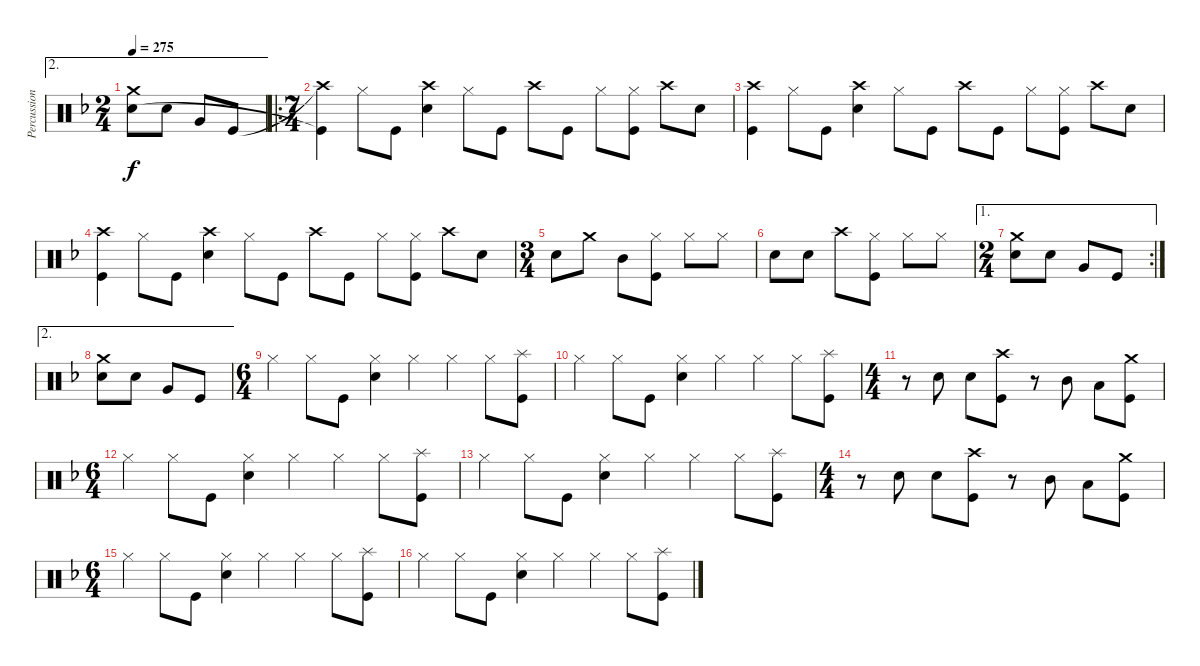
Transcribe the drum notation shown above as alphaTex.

\track ("Percussion" "Percussion") {instrument percussion}
\staff {score}
\articulation defaults
\ae 2
\ts (2 4)
\tempo 275
\clef neutral
\ks dminor
("Crash medium (hit)" "Snare (hit) 2").8{dy f} "Snare (hit) 2".8 "Very Low Tom (hit)".8 "Kick (hit)".8 |
\ro
\ts (7 4)
("Crash high (hit)"{t} "Kick (hit)"{t}).4 "Hi-Hat (closed)".8 "Kick (hit)".8 ("Crash high (hit)" "Snare (hit) 2").4 "Hi-Hat (closed)".8 "Kick (hit)".8 "Crash high (hit)".8 "Kick (hit)".8 "Hi-Hat (closed)".8 ("Hi-Hat (closed)" "Kick (hit)").8 "Crash high (hit)".8 "Snare (hit) 2".8 |
("Crash high (hit)" "Kick (hit)").4 "Hi-Hat (closed)".8 "Kick (hit)".8 ("Crash high (hit)" "Snare (hit) 2").4 "Hi-Hat (closed)".8 "Kick (hit)".8 "Crash high (hit)".8 "Kick (hit)".8 "Hi-Hat (closed)".8 ("Hi-Hat (closed)" "Kick (hit)").8 "Crash high (hit)".8 "Snare (hit) 2".8 |
("Crash high (hit)" "Kick (hit)").4 "Hi-Hat (closed)".8 "Kick (hit)".8 ("Crash high (hit)" "Snare (hit) 2").4 "Hi-Hat (closed)".8 "Kick (hit)".8 "Crash high (hit)".8 "Kick (hit)".8 "Hi-Hat (closed)".8 ("Hi-Hat (closed)" "Kick (hit)").8 "Crash high (hit)".8 "Snare (hit) 2".8 |
\ts (3 4)
"Snare (hit) 2".8 "Crash medium (hit)".8 "Mid Tom (hit)".8 ("Hi-Hat (closed)" "Kick (hit)").8 "Hi-Hat (closed)".8 "Hi-Hat (closed)".8 |
"Snare (hit) 2".8 "Snare (hit) 2".8 "Crash high (hit)".8 ("Hi-Hat (closed)" "Kick (hit)").8 "Hi-Hat (closed)".8 "Hi-Hat (closed)".8 |
\ae 1
\rc 2
\ts (2 4)
("Crash medium (hit)" "Snare (hit) 2").8 "Snare (hit) 2".8 "Very Low Tom (hit)".8 "Kick (hit)".8 |
\ae 2
("Crash medium (hit)" "Snare (hit) 2").8 "Snare (hit) 2".8 "Very Low Tom (hit)".8 "Kick (hit)".8 |
\ts (6 4)
"Hi-Hat (closed)".4 "Hi-Hat (closed)".8 "Kick (hit)".8 ("Hi-Hat (closed)" "Snare (hit) 2").4 "Hi-Hat (closed)".4 "Hi-Hat (closed)".4 "Hi-Hat (closed)".8 ("Splash (hit)" "Kick (hit)").8 |
"Hi-Hat (closed)".4 "Hi-Hat (closed)".8 "Kick (hit)".8 ("Hi-Hat (closed)" "Snare (hit) 2").4 "Hi-Hat (closed)".4 "Hi-Hat (closed)".4 "Hi-Hat (closed)".8 ("Splash (hit)" "Kick (hit)").8 |
\ts (4 4)
r.8 "Snare (hit) 2".8 "Snare (hit) 2".8 ("Crash high (hit)" "Kick (hit)").8 r.8 "Mid Tom (hit)".8 "Low Tom (hit)".8 ("Crash medium (hit)" "Kick (hit)").8 |
\ts (6 4)
"Hi-Hat (closed)".4 "Hi-Hat (closed)".8 "Kick (hit)".8 ("Hi-Hat (closed)" "Snare (hit) 2").4 "Hi-Hat (closed)".4 "Hi-Hat (closed)".4 "Hi-Hat (closed)".8 ("Splash (hit)" "Kick (hit)").8 |
"Hi-Hat (closed)".4 "Hi-Hat (closed)".8 "Kick (hit)".8 ("Hi-Hat (closed)" "Snare (hit) 2").4 "Hi-Hat (closed)".4 "Hi-Hat (closed)".4 "Hi-Hat (closed)".8 ("Splash (hit)" "Kick (hit)").8 |
\ts (4 4)
r.8 "Snare (hit) 2".8 "Snare (hit) 2".8 ("Crash high (hit)" "Kick (hit)").8 r.8 "Mid Tom (hit)".8 "Low Tom (hit)".8 ("Crash medium (hit)" "Kick (hit)").8 |
\ts (6 4)
"Hi-Hat (closed)".4 "Hi-Hat (closed)".8 "Kick (hit)".8 ("Hi-Hat (closed)" "Snare (hit) 2").4 "Hi-Hat (closed)".4 "Hi-Hat (closed)".4 "Hi-Hat (closed)".8 ("Splash (hit)" "Kick (hit)").8 |
"Hi-Hat (closed)".4 "Hi-Hat (closed)".8 "Kick (hit)".8 ("Hi-Hat (closed)" "Snare (hit) 2").4 "Hi-Hat (closed)".4 "Hi-Hat (closed)".4 "Hi-Hat (closed)".8 ("Splash (hit)" "Kick (hit)").8
